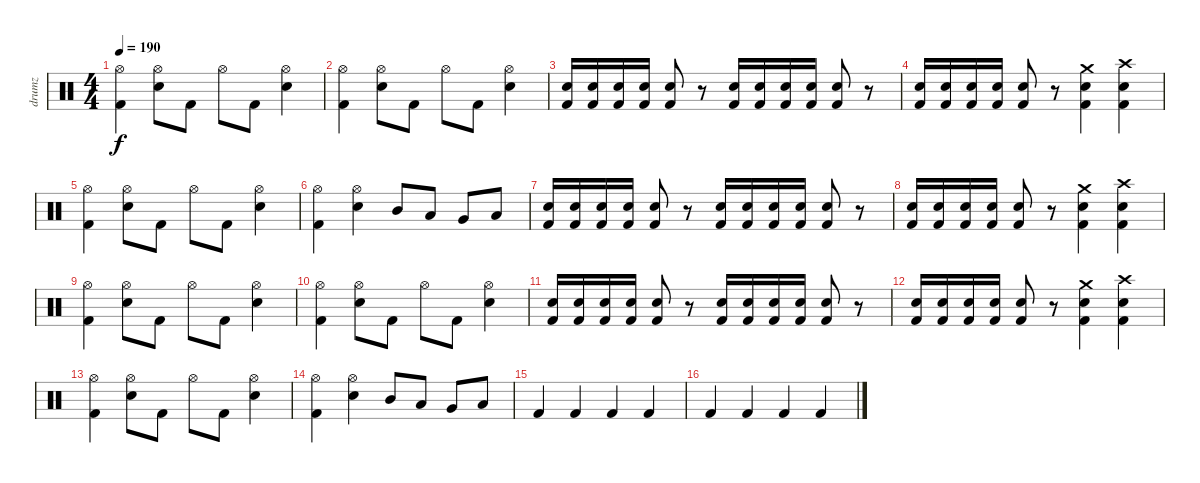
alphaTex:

\track ("drumz" "drumz") {instrument percussion}
\staff {score}
\articulation defaults
\ts (4 4)
\tempo 190
\clef neutral
\ks c
("Hi-Hat (open)" "Kick (hit) 2").4{dy f} ("Hi-Hat (open)" "Electric Snare (hit)").8 "Kick (hit) 2".8 "Hi-Hat (open)".8 "Kick (hit) 2".8 ("Hi-Hat (open)" "Electric Snare (hit)").4 |
("Hi-Hat (open)" "Kick (hit) 2").4 ("Hi-Hat (open)" "Electric Snare (hit)").8 "Kick (hit) 2".8 "Hi-Hat (open)".8 "Kick (hit) 2".8 ("Hi-Hat (open)" "Electric Snare (hit)").4 |
("Electric Snare (hit)" "Kick (hit) 2").16 ("Electric Snare (hit)" "Kick (hit) 2").16 ("Electric Snare (hit)" "Kick (hit) 2").16 ("Electric Snare (hit)" "Kick (hit) 2").16 ("Electric Snare (hit)" "Kick (hit) 2").8 r.8 ("Electric Snare (hit)" "Kick (hit) 2").16 ("Electric Snare (hit)" "Kick (hit) 2").16 ("Electric Snare (hit)" "Kick (hit) 2").16 ("Electric Snare (hit)" "Kick (hit) 2").16 ("Electric Snare (hit)" "Kick (hit) 2").8 r.8 |
("Electric Snare (hit)" "Kick (hit) 2").16 ("Electric Snare (hit)" "Kick (hit) 2").16 ("Electric Snare (hit)" "Kick (hit) 2").16 ("Electric Snare (hit)" "Kick (hit) 2").16 ("Electric Snare (hit)" "Kick (hit) 2").8 r.8 ("Crash medium (hit)" "Electric Snare (hit)" "Kick (hit) 2").4 ("Crash high (hit)" "Electric Snare (hit)" "Kick (hit) 2").4 |
("Hi-Hat (open)" "Kick (hit) 2").4 ("Hi-Hat (open)" "Electric Snare (hit)").8 "Kick (hit) 2".8 "Hi-Hat (open)".8 "Kick (hit) 2".8 ("Hi-Hat (open)" "Electric Snare (hit)").4 |
("Hi-Hat (open)" "Kick (hit) 2").4 ("Hi-Hat (open)" "Electric Snare (hit)").4 "Mid Tom (hit)".8 "Low Tom (hit)".8 "Very Low Tom (hit)".8 "Low Floor Tom (hit)".8 |
("Electric Snare (hit)" "Kick (hit) 2").16 ("Electric Snare (hit)" "Kick (hit) 2").16 ("Electric Snare (hit)" "Kick (hit) 2").16 ("Electric Snare (hit)" "Kick (hit) 2").16 ("Electric Snare (hit)" "Kick (hit) 2").8 r.8 ("Electric Snare (hit)" "Kick (hit) 2").16 ("Electric Snare (hit)" "Kick (hit) 2").16 ("Electric Snare (hit)" "Kick (hit) 2").16 ("Electric Snare (hit)" "Kick (hit) 2").16 ("Electric Snare (hit)" "Kick (hit) 2").8 r.8 |
("Electric Snare (hit)" "Kick (hit) 2").16 ("Electric Snare (hit)" "Kick (hit) 2").16 ("Electric Snare (hit)" "Kick (hit) 2").16 ("Electric Snare (hit)" "Kick (hit) 2").16 ("Electric Snare (hit)" "Kick (hit) 2").8 r.8 ("Crash medium (hit)" "Electric Snare (hit)" "Kick (hit) 2").4 ("Crash high (hit)" "Electric Snare (hit)" "Kick (hit) 2").4 |
("Hi-Hat (open)" "Kick (hit) 2").4 ("Hi-Hat (open)" "Electric Snare (hit)").8 "Kick (hit) 2".8 "Hi-Hat (open)".8 "Kick (hit) 2".8 ("Hi-Hat (open)" "Electric Snare (hit)").4 |
("Hi-Hat (open)" "Kick (hit) 2").4 ("Hi-Hat (open)" "Electric Snare (hit)").8 "Kick (hit) 2".8 "Hi-Hat (open)".8 "Kick (hit) 2".8 ("Hi-Hat (open)" "Electric Snare (hit)").4 |
("Electric Snare (hit)" "Kick (hit) 2").16 ("Electric Snare (hit)" "Kick (hit) 2").16 ("Electric Snare (hit)" "Kick (hit) 2").16 ("Electric Snare (hit)" "Kick (hit) 2").16 ("Electric Snare (hit)" "Kick (hit) 2").8 r.8 ("Electric Snare (hit)" "Kick (hit) 2").16 ("Electric Snare (hit)" "Kick (hit) 2").16 ("Electric Snare (hit)" "Kick (hit) 2").16 ("Electric Snare (hit)" "Kick (hit) 2").16 ("Electric Snare (hit)" "Kick (hit) 2").8 r.8 |
("Electric Snare (hit)" "Kick (hit) 2").16 ("Electric Snare (hit)" "Kick (hit) 2").16 ("Electric Snare (hit)" "Kick (hit) 2").16 ("Electric Snare (hit)" "Kick (hit) 2").16 ("Electric Snare (hit)" "Kick (hit) 2").8 r.8 ("Crash medium (hit)" "Electric Snare (hit)" "Kick (hit) 2").4 ("Crash high (hit)" "Electric Snare (hit)" "Kick (hit) 2").4 |
("Hi-Hat (open)" "Kick (hit) 2").4 ("Hi-Hat (open)" "Electric Snare (hit)").8 "Kick (hit) 2".8 "Hi-Hat (open)".8 "Kick (hit) 2".8 ("Hi-Hat (open)" "Electric Snare (hit)").4 |
("Hi-Hat (open)" "Kick (hit) 2").4 ("Hi-Hat (open)" "Electric Snare (hit)").4 "Mid Tom (hit)".8 "Low Tom (hit)".8 "Very Low Tom (hit)".8 "Low Floor Tom (hit)".8 |
"Kick (hit) 2".4 "Kick (hit) 2".4 "Kick (hit) 2".4 "Kick (hit) 2".4 |
"Kick (hit) 2".4 "Kick (hit) 2".4 "Kick (hit) 2".4 "Kick (hit) 2".4
